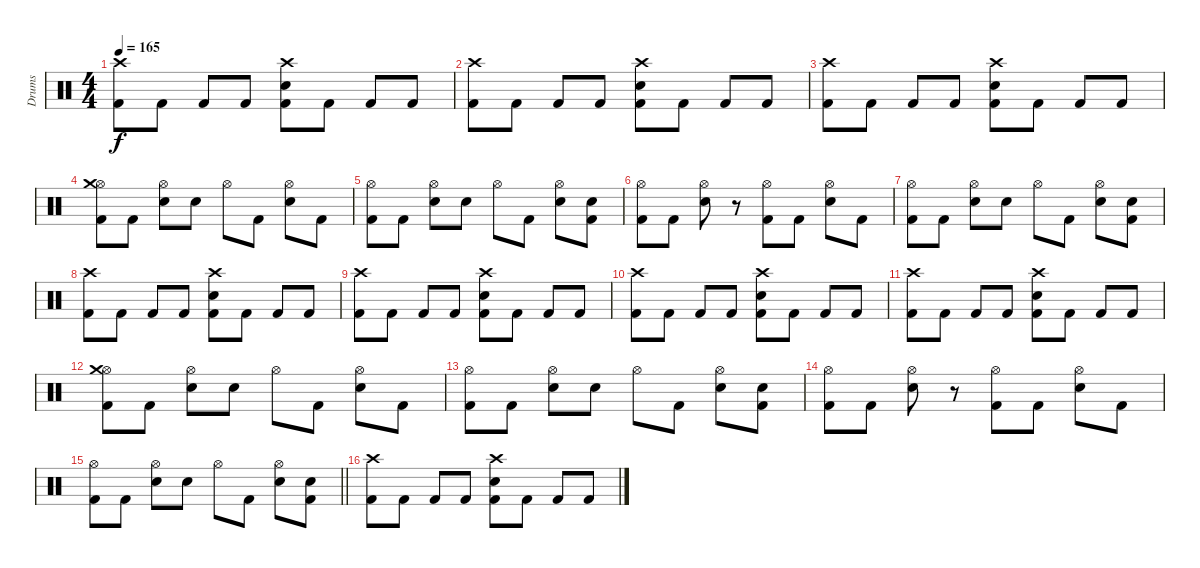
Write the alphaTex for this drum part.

\track ("Drums" "Drums") {instrument percussion}
\staff {score}
\articulation defaults
\ts (4 4)
\tempo 165
\clef neutral
\ks c
("Crash high (hit)" "Kick (hit) 2").8{dy f} "Kick (hit) 2".8 "Kick (hit) 2".8 "Kick (hit) 2".8 ("Crash high (hit)" "Snare (hit) 2" "Kick (hit) 2").8 "Kick (hit) 2".8 "Kick (hit) 2".8 "Kick (hit) 2".8 |
("Crash high (hit)" "Kick (hit) 2").8 "Kick (hit) 2".8 "Kick (hit) 2".8 "Kick (hit) 2".8 ("Crash high (hit)" "Snare (hit) 2" "Kick (hit) 2").8 "Kick (hit) 2".8 "Kick (hit) 2".8 "Kick (hit) 2".8 |
("Crash high (hit)" "Kick (hit) 2").8 "Kick (hit) 2".8 "Kick (hit) 2".8 "Kick (hit) 2".8 ("Crash high (hit)" "Snare (hit) 2" "Kick (hit) 2").8 "Kick (hit) 2".8 "Kick (hit) 2".8 "Kick (hit) 2".8 |
("Hi-Hat (open)" "Crash medium (hit)" "Kick (hit) 2").8 "Kick (hit) 2".8 ("Hi-Hat (open)" "Snare (hit) 2").8 "Snare (hit) 2".8 "Hi-Hat (open)".8 "Kick (hit) 2".8 ("Hi-Hat (open)" "Snare (hit) 2").8 "Kick (hit) 2".8 |
("Hi-Hat (open)" "Kick (hit) 2").8 "Kick (hit) 2".8 ("Hi-Hat (open)" "Snare (hit) 2").8 "Snare (hit) 2".8 "Hi-Hat (open)".8 "Kick (hit) 2".8 ("Hi-Hat (open)" "Snare (hit) 2").8 ("Snare (hit) 2" "Kick (hit) 2").8 |
("Hi-Hat (open)" "Kick (hit) 2").8 "Kick (hit) 2".8 ("Hi-Hat (open)" "Snare (hit) 2").8 r.8 ("Hi-Hat (open)" "Kick (hit) 2").8 "Kick (hit) 2".8 ("Hi-Hat (open)" "Snare (hit) 2").8 "Kick (hit) 2".8 |
("Hi-Hat (open)" "Kick (hit) 2").8 "Kick (hit) 2".8 ("Hi-Hat (open)" "Snare (hit) 2").8 "Snare (hit) 2".8 "Hi-Hat (open)".8 "Kick (hit) 2".8 ("Hi-Hat (open)" "Snare (hit) 2").8 ("Snare (hit) 2" "Kick (hit) 2").8 |
("Crash high (hit)" "Kick (hit) 2").8 "Kick (hit) 2".8 "Kick (hit) 2".8 "Kick (hit) 2".8 ("Crash high (hit)" "Snare (hit) 2" "Kick (hit) 2").8 "Kick (hit) 2".8 "Kick (hit) 2".8 "Kick (hit) 2".8 |
("Crash high (hit)" "Kick (hit) 2").8 "Kick (hit) 2".8 "Kick (hit) 2".8 "Kick (hit) 2".8 ("Crash high (hit)" "Snare (hit) 2" "Kick (hit) 2").8 "Kick (hit) 2".8 "Kick (hit) 2".8 "Kick (hit) 2".8 |
("Crash high (hit)" "Kick (hit) 2").8 "Kick (hit) 2".8 "Kick (hit) 2".8 "Kick (hit) 2".8 ("Crash high (hit)" "Snare (hit) 2" "Kick (hit) 2").8 "Kick (hit) 2".8 "Kick (hit) 2".8 "Kick (hit) 2".8 |
("Crash high (hit)" "Kick (hit) 2").8 "Kick (hit) 2".8 "Kick (hit) 2".8 "Kick (hit) 2".8 ("Crash high (hit)" "Snare (hit) 2" "Kick (hit) 2").8 "Kick (hit) 2".8 "Kick (hit) 2".8 "Kick (hit) 2".8 |
("Hi-Hat (open)" "Crash medium (hit)" "Kick (hit) 2").8 "Kick (hit) 2".8 ("Hi-Hat (open)" "Snare (hit) 2").8 "Snare (hit) 2".8 "Hi-Hat (open)".8 "Kick (hit) 2".8 ("Hi-Hat (open)" "Snare (hit) 2").8 "Kick (hit) 2".8 |
("Hi-Hat (open)" "Kick (hit) 2").8 "Kick (hit) 2".8 ("Hi-Hat (open)" "Snare (hit) 2").8 "Snare (hit) 2".8 "Hi-Hat (open)".8 "Kick (hit) 2".8 ("Hi-Hat (open)" "Snare (hit) 2").8 ("Snare (hit) 2" "Kick (hit) 2").8 |
("Hi-Hat (open)" "Kick (hit) 2").8 "Kick (hit) 2".8 ("Hi-Hat (open)" "Snare (hit) 2").8 r.8 ("Hi-Hat (open)" "Kick (hit) 2").8 "Kick (hit) 2".8 ("Hi-Hat (open)" "Snare (hit) 2").8 "Kick (hit) 2".8 |
\barLineRight lightlight
("Hi-Hat (open)" "Kick (hit) 2").8 "Kick (hit) 2".8 ("Hi-Hat (open)" "Snare (hit) 2").8 "Snare (hit) 2".8 "Hi-Hat (open)".8 "Kick (hit) 2".8 ("Hi-Hat (open)" "Snare (hit) 2").8 ("Snare (hit) 2" "Kick (hit) 2").8 |
("Crash high (hit)" "Kick (hit) 2").8 "Kick (hit) 2".8 "Kick (hit) 2".8 "Kick (hit) 2".8 ("Crash high (hit)" "Snare (hit) 2" "Kick (hit) 2").8 "Kick (hit) 2".8 "Kick (hit) 2".8 "Kick (hit) 2".8
